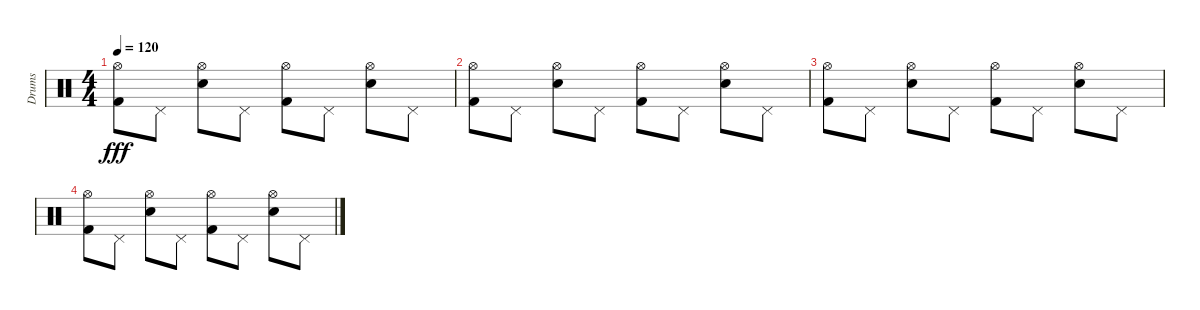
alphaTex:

\track ("Drums" "Drums") {instrument percussion}
\staff {score}
\articulation defaults
\ts (4 4)
\tempo 120
\clef neutral
\ks c
("Hi-Hat (open)" "Kick (hit) 2").8{dy fff} "Pedal Hi-Hat (hit)".8 ("Hi-Hat (open)" "Snare (hit) 2").8 "Pedal Hi-Hat (hit)".8 ("Hi-Hat (open)" "Kick (hit) 2").8 "Pedal Hi-Hat (hit)".8 ("Hi-Hat (open)" "Snare (hit) 2").8 "Pedal Hi-Hat (hit)".8 |
("Hi-Hat (open)" "Kick (hit) 2").8 "Pedal Hi-Hat (hit)".8 ("Hi-Hat (open)" "Snare (hit) 2").8 "Pedal Hi-Hat (hit)".8 ("Hi-Hat (open)" "Kick (hit) 2").8 "Pedal Hi-Hat (hit)".8 ("Hi-Hat (open)" "Snare (hit) 2").8 "Pedal Hi-Hat (hit)".8 |
("Hi-Hat (open)" "Kick (hit) 2").8 "Pedal Hi-Hat (hit)".8 ("Hi-Hat (open)" "Snare (hit) 2").8 "Pedal Hi-Hat (hit)".8 ("Hi-Hat (open)" "Kick (hit) 2").8 "Pedal Hi-Hat (hit)".8 ("Hi-Hat (open)" "Snare (hit) 2").8 "Pedal Hi-Hat (hit)".8 |
("Hi-Hat (open)" "Kick (hit) 2").8 "Pedal Hi-Hat (hit)".8 ("Hi-Hat (open)" "Snare (hit) 2").8 "Pedal Hi-Hat (hit)".8 ("Hi-Hat (open)" "Kick (hit) 2").8 "Pedal Hi-Hat (hit)".8 ("Hi-Hat (open)" "Snare (hit) 2").8 "Pedal Hi-Hat (hit)".8
